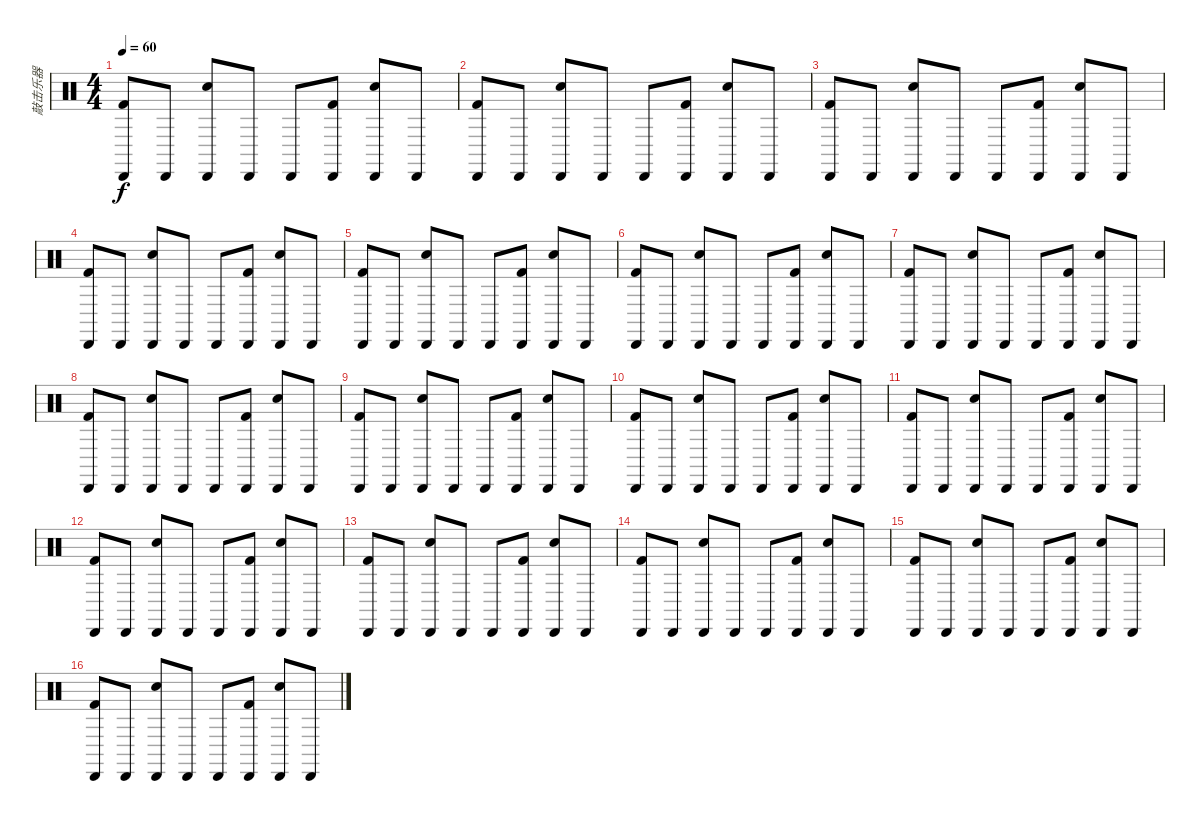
\track ("敲击乐器" "敲击乐器") {instrument percussion}
\staff {score}
\articulation defaults
\ts (4 4)
\tempo 60
\clef neutral
\ks c
("Cabasa (hit)" "Kick (hit) 2").8{dy f} "Cabasa (hit)".8 ("Cabasa (hit)" "Electric Snare (hit)").8 "Cabasa (hit)".8 "Cabasa (hit)".8 ("Cabasa (hit)" "Kick (hit) 2").8 ("Cabasa (hit)" "Electric Snare (hit)").8 "Cabasa (hit)".8 |
("Cabasa (hit)" "Kick (hit) 2").8 "Cabasa (hit)".8 ("Cabasa (hit)" "Electric Snare (hit)").8 "Cabasa (hit)".8 "Cabasa (hit)".8 ("Cabasa (hit)" "Kick (hit) 2").8 ("Cabasa (hit)" "Electric Snare (hit)").8 "Cabasa (hit)".8 |
("Cabasa (hit)" "Kick (hit) 2").8 "Cabasa (hit)".8 ("Cabasa (hit)" "Electric Snare (hit)").8 "Cabasa (hit)".8 "Cabasa (hit)".8 ("Cabasa (hit)" "Kick (hit) 2").8 ("Cabasa (hit)" "Electric Snare (hit)").8 "Cabasa (hit)".8 |
("Cabasa (hit)" "Kick (hit) 2").8 "Cabasa (hit)".8 ("Cabasa (hit)" "Electric Snare (hit)").8 "Cabasa (hit)".8 "Cabasa (hit)".8 ("Cabasa (hit)" "Kick (hit) 2").8 ("Cabasa (hit)" "Electric Snare (hit)").8 "Cabasa (hit)".8 |
("Cabasa (hit)" "Kick (hit) 2").8 "Cabasa (hit)".8 ("Cabasa (hit)" "Electric Snare (hit)").8 "Cabasa (hit)".8 "Cabasa (hit)".8 ("Cabasa (hit)" "Kick (hit) 2").8 ("Cabasa (hit)" "Electric Snare (hit)").8 "Cabasa (hit)".8 |
("Cabasa (hit)" "Kick (hit) 2").8 "Cabasa (hit)".8 ("Cabasa (hit)" "Electric Snare (hit)").8 "Cabasa (hit)".8 "Cabasa (hit)".8 ("Cabasa (hit)" "Kick (hit) 2").8 ("Cabasa (hit)" "Electric Snare (hit)").8 "Cabasa (hit)".8 |
("Cabasa (hit)" "Kick (hit) 2").8 "Cabasa (hit)".8 ("Cabasa (hit)" "Electric Snare (hit)").8 "Cabasa (hit)".8 "Cabasa (hit)".8 ("Cabasa (hit)" "Kick (hit) 2").8 ("Cabasa (hit)" "Electric Snare (hit)").8 "Cabasa (hit)".8 |
("Cabasa (hit)" "Kick (hit) 2").8 "Cabasa (hit)".8 ("Cabasa (hit)" "Electric Snare (hit)").8 "Cabasa (hit)".8 "Cabasa (hit)".8 ("Cabasa (hit)" "Kick (hit) 2").8 ("Cabasa (hit)" "Electric Snare (hit)").8 "Cabasa (hit)".8 |
("Cabasa (hit)" "Kick (hit) 2").8 "Cabasa (hit)".8 ("Cabasa (hit)" "Electric Snare (hit)").8 "Cabasa (hit)".8 "Cabasa (hit)".8 ("Cabasa (hit)" "Kick (hit) 2").8 ("Cabasa (hit)" "Electric Snare (hit)").8 "Cabasa (hit)".8 |
("Cabasa (hit)" "Kick (hit) 2").8 "Cabasa (hit)".8 ("Cabasa (hit)" "Electric Snare (hit)").8 "Cabasa (hit)".8 "Cabasa (hit)".8 ("Cabasa (hit)" "Kick (hit) 2").8 ("Cabasa (hit)" "Electric Snare (hit)").8 "Cabasa (hit)".8 |
("Cabasa (hit)" "Kick (hit) 2").8 "Cabasa (hit)".8 ("Cabasa (hit)" "Electric Snare (hit)").8 "Cabasa (hit)".8 "Cabasa (hit)".8 ("Cabasa (hit)" "Kick (hit) 2").8 ("Cabasa (hit)" "Electric Snare (hit)").8 "Cabasa (hit)".8 |
("Cabasa (hit)" "Kick (hit) 2").8 "Cabasa (hit)".8 ("Cabasa (hit)" "Electric Snare (hit)").8 "Cabasa (hit)".8 "Cabasa (hit)".8 ("Cabasa (hit)" "Kick (hit) 2").8 ("Cabasa (hit)" "Electric Snare (hit)").8 "Cabasa (hit)".8 |
("Cabasa (hit)" "Kick (hit) 2").8 "Cabasa (hit)".8 ("Cabasa (hit)" "Electric Snare (hit)").8 "Cabasa (hit)".8 "Cabasa (hit)".8 ("Cabasa (hit)" "Kick (hit) 2").8 ("Cabasa (hit)" "Electric Snare (hit)").8 "Cabasa (hit)".8 |
("Cabasa (hit)" "Kick (hit) 2").8 "Cabasa (hit)".8 ("Cabasa (hit)" "Electric Snare (hit)").8 "Cabasa (hit)".8 "Cabasa (hit)".8 ("Cabasa (hit)" "Kick (hit) 2").8 ("Cabasa (hit)" "Electric Snare (hit)").8 "Cabasa (hit)".8 |
("Cabasa (hit)" "Kick (hit) 2").8 "Cabasa (hit)".8 ("Cabasa (hit)" "Electric Snare (hit)").8 "Cabasa (hit)".8 "Cabasa (hit)".8 ("Cabasa (hit)" "Kick (hit) 2").8 ("Cabasa (hit)" "Electric Snare (hit)").8 "Cabasa (hit)".8 |
("Cabasa (hit)" "Kick (hit) 2").8 "Cabasa (hit)".8 ("Cabasa (hit)" "Electric Snare (hit)").8 "Cabasa (hit)".8 "Cabasa (hit)".8 ("Cabasa (hit)" "Kick (hit) 2").8 ("Cabasa (hit)" "Electric Snare (hit)").8 "Cabasa (hit)".8
